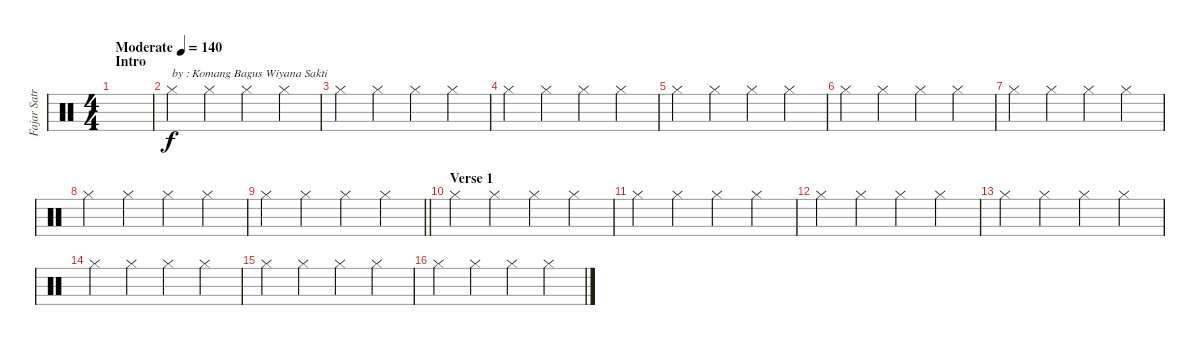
\track ("Fajar Satriana" "Fajar Satr") {instrument percussion}
\staff {score}
\articulation defaults
\ts (4 4)
\section ("" "Intro")
\tempo (140 "Moderate")
\clef neutral
\ks c
|
"Hi-Hat (closed)".4{txt "by : Komang Bagus Wiyana Sakti"} "Hi-Hat (closed)".4 "Hi-Hat (closed)".4 "Hi-Hat (closed)".4 |
"Hi-Hat (closed)".4 "Hi-Hat (closed)".4 "Hi-Hat (closed)".4 "Hi-Hat (closed)".4 |
"Hi-Hat (closed)".4 "Hi-Hat (closed)".4 "Hi-Hat (closed)".4 "Hi-Hat (closed)".4 |
"Hi-Hat (closed)".4 "Hi-Hat (closed)".4 "Hi-Hat (closed)".4 "Hi-Hat (closed)".4 |
"Hi-Hat (closed)".4 "Hi-Hat (closed)".4 "Hi-Hat (closed)".4 "Hi-Hat (closed)".4 |
"Hi-Hat (closed)".4 "Hi-Hat (closed)".4 "Hi-Hat (closed)".4 "Hi-Hat (closed)".4 |
"Hi-Hat (closed)".4 "Hi-Hat (closed)".4 "Hi-Hat (closed)".4 "Hi-Hat (closed)".4 |
\barLineRight lightlight "Hi-Hat (closed)".4 "Hi-Hat (closed)".4 "Hi-Hat (closed)".4 "Hi-Hat (closed)".4
|
\section ("" "Verse 1")
"Hi-Hat (closed)".4 "Hi-Hat (closed)".4 "Hi-Hat (closed)".4 "Hi-Hat (closed)".4 |
"Hi-Hat (closed)".4 "Hi-Hat (closed)".4 "Hi-Hat (closed)".4 "Hi-Hat (closed)".4 |
"Hi-Hat (closed)".4 "Hi-Hat (closed)".4 "Hi-Hat (closed)".4 "Hi-Hat (closed)".4 |
"Hi-Hat (closed)".4 "Hi-Hat (closed)".4 "Hi-Hat (closed)".4 "Hi-Hat (closed)".4 |
"Hi-Hat (closed)".4 "Hi-Hat (closed)".4 "Hi-Hat (closed)".4 "Hi-Hat (closed)".4 |
"Hi-Hat (closed)".4 "Hi-Hat (closed)".4 "Hi-Hat (closed)".4 "Hi-Hat (closed)".4 |
"Hi-Hat (closed)".4 "Hi-Hat (closed)".4 "Hi-Hat (closed)".4 "Hi-Hat (closed)".4
